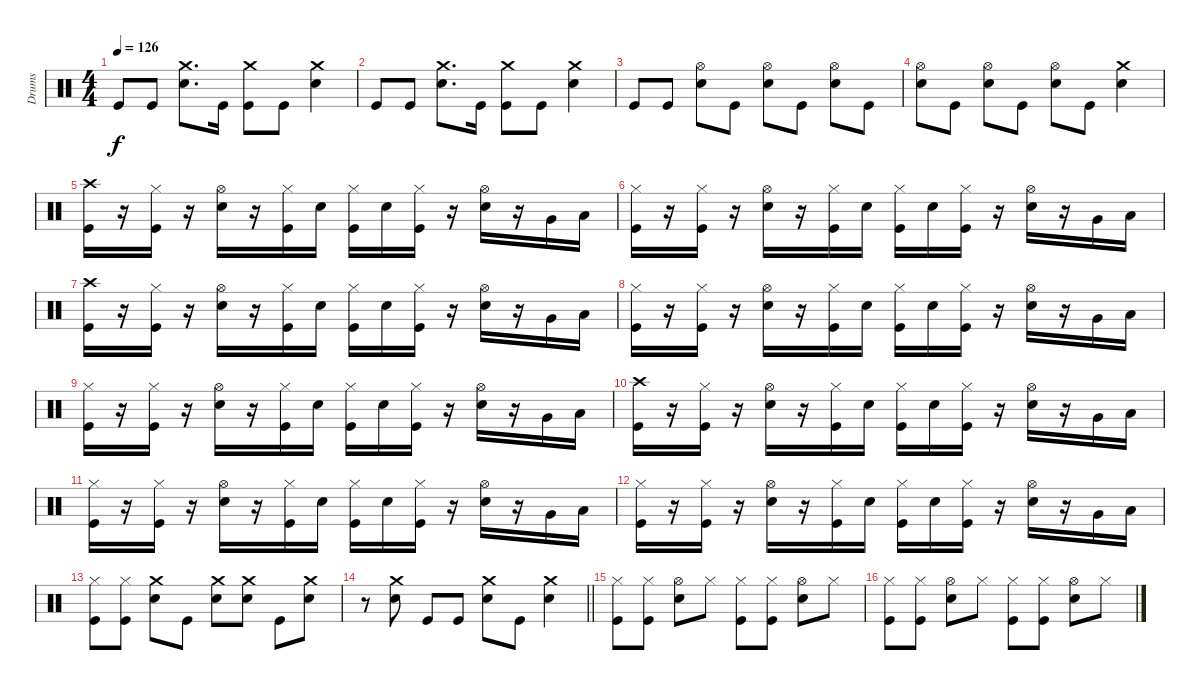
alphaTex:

\track ("Drums" "Drums") {instrument percussion}
\staff {score}
\articulation defaults
\ts (4 4)
\tempo 126
\clef neutral
\ks c "Kick (hit)".8{dy f} "Kick (hit)".8
("Crash medium (hit)" "Snare (hit) 2").8{d} "Kick (hit)".16 ("Crash medium (hit)" "Kick (hit)").8 "Kick (hit)".8 ("Crash medium (hit)" "Snare (hit) 2").4 |
"Kick (hit)".8 "Kick (hit)".8 ("Crash medium (hit)" "Snare (hit) 2").8{d} "Kick (hit)".16 ("Crash medium (hit)" "Kick (hit)").8 "Kick (hit)".8 ("Crash medium (hit)" "Snare (hit) 2").4 |
"Kick (hit)".8 "Kick (hit)".8 ("Hi-Hat (open)" "Snare (hit) 2").8 "Kick (hit)".8 ("Hi-Hat (open)" "Snare (hit) 2").8 "Kick (hit)".8 ("Hi-Hat (open)" "Snare (hit) 2").8 "Kick (hit)".8 |
("Hi-Hat (open)" "Snare (hit) 2").8 "Kick (hit)".8 ("Hi-Hat (open)" "Snare (hit) 2").8 "Kick (hit)".8 ("Hi-Hat (open)" "Snare (hit) 2").8 "Kick (hit)".8 ("Crash medium (hit)" "Snare (hit) 2").4 |
("Crash high (hit)" "Kick (hit)").16 r.16 ("Hi-Hat (closed)" "Kick (hit)").16 r.16 ("Hi-Hat (open)" "Snare (hit) 2").16 r.16 ("Hi-Hat (closed)" "Kick (hit)").16 "Snare (hit) 2".16 ("Hi-Hat (closed)" "Kick (hit)").16 "Snare (hit) 2".16 ("Hi-Hat (closed)" "Kick (hit)").16 r.16 ("Hi-Hat (open)" "Snare (hit) 2").16 r.16 "Very Low Tom (hit)".16 "Low Tom (hit)".16 |
("Hi-Hat (closed)" "Kick (hit)").16 r.16 ("Hi-Hat (closed)" "Kick (hit)").16 r.16 ("Hi-Hat (open)" "Snare (hit) 2").16 r.16 ("Hi-Hat (closed)" "Kick (hit)").16 "Snare (hit) 2".16 ("Hi-Hat (closed)" "Kick (hit)").16 "Snare (hit) 2".16 ("Hi-Hat (closed)" "Kick (hit)").16 r.16 ("Hi-Hat (open)" "Snare (hit) 2").16 r.16 "Very Low Tom (hit)".16 "Low Tom (hit)".16 |
("Crash high (hit)" "Kick (hit)").16 r.16 ("Hi-Hat (closed)" "Kick (hit)").16 r.16 ("Hi-Hat (open)" "Snare (hit) 2").16 r.16 ("Hi-Hat (closed)" "Kick (hit)").16 "Snare (hit) 2".16 ("Hi-Hat (closed)" "Kick (hit)").16 "Snare (hit) 2".16 ("Hi-Hat (closed)" "Kick (hit)").16 r.16 ("Hi-Hat (open)" "Snare (hit) 2").16 r.16 "Very Low Tom (hit)".16 "Low Tom (hit)".16 |
("Hi-Hat (closed)" "Kick (hit)").16 r.16 ("Hi-Hat (closed)" "Kick (hit)").16 r.16 ("Hi-Hat (open)" "Snare (hit) 2").16 r.16 ("Hi-Hat (closed)" "Kick (hit)").16 "Snare (hit) 2".16 ("Hi-Hat (closed)" "Kick (hit)").16 "Snare (hit) 2".16 ("Hi-Hat (closed)" "Kick (hit)").16 r.16 ("Hi-Hat (open)" "Snare (hit) 2").16 r.16 "Very Low Tom (hit)".16 "Low Tom (hit)".16 |
("Hi-Hat (closed)" "Kick (hit)").16 r.16 ("Hi-Hat (closed)" "Kick (hit)").16 r.16 ("Hi-Hat (open)" "Snare (hit) 2").16 r.16 ("Hi-Hat (closed)" "Kick (hit)").16 "Snare (hit) 2".16 ("Hi-Hat (closed)" "Kick (hit)").16 "Snare (hit) 2".16 ("Hi-Hat (closed)" "Kick (hit)").16 r.16 ("Hi-Hat (open)" "Snare (hit) 2").16 r.16 "Very Low Tom (hit)".16 "Low Tom (hit)".16 |
("Crash high (hit)" "Kick (hit)").16 r.16 ("Hi-Hat (closed)" "Kick (hit)").16 r.16 ("Hi-Hat (open)" "Snare (hit) 2").16 r.16 ("Hi-Hat (closed)" "Kick (hit)").16 "Snare (hit) 2".16 ("Hi-Hat (closed)" "Kick (hit)").16 "Snare (hit) 2".16 ("Hi-Hat (closed)" "Kick (hit)").16 r.16 ("Hi-Hat (open)" "Snare (hit) 2").16 r.16 "Very Low Tom (hit)".16 "Low Tom (hit)".16 |
("Hi-Hat (closed)" "Kick (hit)").16 r.16 ("Hi-Hat (closed)" "Kick (hit)").16 r.16 ("Hi-Hat (open)" "Snare (hit) 2").16 r.16 ("Hi-Hat (closed)" "Kick (hit)").16 "Snare (hit) 2".16 ("Hi-Hat (closed)" "Kick (hit)").16 "Snare (hit) 2".16 ("Hi-Hat (closed)" "Kick (hit)").16 r.16 ("Hi-Hat (open)" "Snare (hit) 2").16 r.16 "Very Low Tom (hit)".16 "Low Tom (hit)".16 |
("Hi-Hat (closed)" "Kick (hit)").16 r.16 ("Hi-Hat (closed)" "Kick (hit)").16 r.16 ("Hi-Hat (open)" "Snare (hit) 2").16 r.16 ("Hi-Hat (closed)" "Kick (hit)").16 "Snare (hit) 2".16 ("Hi-Hat (closed)" "Kick (hit)").16 "Snare (hit) 2".16 ("Hi-Hat (closed)" "Kick (hit)").16 r.16 ("Hi-Hat (open)" "Snare (hit) 2").16 r.16 "Very Low Tom (hit)".16 "Low Tom (hit)".16 |
("Hi-Hat (closed)" "Kick (hit)").8 ("Hi-Hat (closed)" "Kick (hit)").8 ("Crash medium (hit)" "Snare (hit) 2").8 "Kick (hit)".8 ("Crash medium (hit)" "Snare (hit) 2").8 ("Crash medium (hit)" "Snare (hit) 2").8 "Kick (hit)".8 ("Crash medium (hit)" "Snare (hit) 2").8 |
\barLineRight lightlight
r.8 ("Crash medium (hit)" "Snare (hit) 2").8 "Kick (hit)".8 "Kick (hit)".8 ("Crash medium (hit)" "Snare (hit) 2").8 "Kick (hit)".8 ("Crash medium (hit)" "Snare (hit) 2").4 |
("Hi-Hat (closed)" "Kick (hit)").8 ("Hi-Hat (closed)" "Kick (hit)").8 ("Hi-Hat (open)" "Snare (hit) 2").8 "Hi-Hat (closed)".8 ("Hi-Hat (closed)" "Kick (hit)").8 ("Hi-Hat (closed)" "Kick (hit)").8 ("Hi-Hat (open)" "Snare (hit) 2").8 "Hi-Hat (closed)".8 |
("Hi-Hat (closed)" "Kick (hit)").8 ("Hi-Hat (closed)" "Kick (hit)").8 ("Hi-Hat (open)" "Snare (hit) 2").8 "Hi-Hat (closed)".8 ("Hi-Hat (closed)" "Kick (hit)").8 ("Hi-Hat (closed)" "Kick (hit)").8 ("Hi-Hat (open)" "Snare (hit) 2").8 "Hi-Hat (closed)".8
